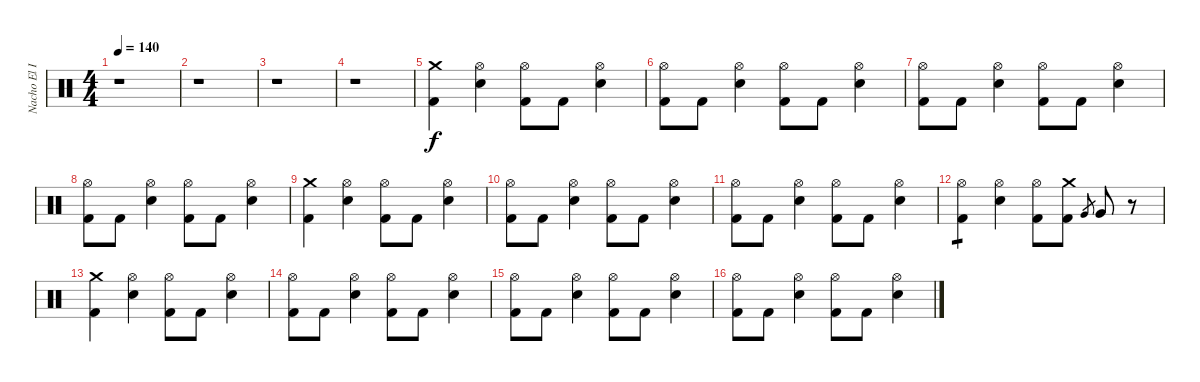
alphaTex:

\track ("Nacho El Implacable Gonzalez" "Nacho El I") {instrument percussion}
\staff {score}
\articulation defaults
\ts (4 4)
\tempo 140
\clef neutral
\ks c
r.1{dy f} |
r.1 |
r.1 |
r.1 |
("Crash medium (hit)" "Kick (hit) 2").4 ("Hi-Hat (open)" "Electric Snare (hit)").4 ("Hi-Hat (open)" "Kick (hit) 2").8 "Kick (hit) 2".8 ("Hi-Hat (open)" "Electric Snare (hit)").4 |
("Hi-Hat (open)" "Kick (hit) 2").8 "Kick (hit) 2".8 ("Hi-Hat (open)" "Electric Snare (hit)").4 ("Hi-Hat (open)" "Kick (hit) 2").8 "Kick (hit) 2".8 ("Hi-Hat (open)" "Electric Snare (hit)").4 |
("Hi-Hat (open)" "Kick (hit) 2").8 "Kick (hit) 2".8 ("Hi-Hat (open)" "Electric Snare (hit)").4 ("Hi-Hat (open)" "Kick (hit) 2").8 "Kick (hit) 2".8 ("Hi-Hat (open)" "Electric Snare (hit)").4 |
("Hi-Hat (open)" "Kick (hit) 2").8 "Kick (hit) 2".8 ("Hi-Hat (open)" "Electric Snare (hit)").4 ("Hi-Hat (open)" "Kick (hit) 2").8 "Kick (hit) 2".8 ("Hi-Hat (open)" "Electric Snare (hit)").4 |
("Crash medium (hit)" "Kick (hit) 2").4 ("Hi-Hat (open)" "Electric Snare (hit)").4 ("Hi-Hat (open)" "Kick (hit) 2").8 "Kick (hit) 2".8 ("Hi-Hat (open)" "Electric Snare (hit)").4 |
("Hi-Hat (open)" "Kick (hit) 2").8 "Kick (hit) 2".8 ("Hi-Hat (open)" "Electric Snare (hit)").4 ("Hi-Hat (open)" "Kick (hit) 2").8 "Kick (hit) 2".8 ("Hi-Hat (open)" "Electric Snare (hit)").4 |
("Hi-Hat (open)" "Kick (hit) 2").8 "Kick (hit) 2".8 ("Hi-Hat (open)" "Electric Snare (hit)").4 ("Hi-Hat (open)" "Kick (hit) 2").8 "Kick (hit) 2".8 ("Hi-Hat (open)" "Electric Snare (hit)").4 |
("Hi-Hat (open)" "Kick (hit) 2").4{tp 1} ("Hi-Hat (open)" "Electric Snare (hit)").4 ("Hi-Hat (open)" "Kick (hit) 2").8 ("Crash medium (hit)" "Kick (hit) 2").8 "Very Low Tom (hit)".8{gr} "Very Low Tom (hit)".8 r.8 |
("Crash medium (hit)" "Kick (hit) 2").4 ("Hi-Hat (open)" "Electric Snare (hit)").4 ("Hi-Hat (open)" "Kick (hit) 2").8 "Kick (hit) 2".8 ("Hi-Hat (open)" "Electric Snare (hit)").4 |
("Hi-Hat (open)" "Kick (hit) 2").8 "Kick (hit) 2".8 ("Hi-Hat (open)" "Electric Snare (hit)").4 ("Hi-Hat (open)" "Kick (hit) 2").8 "Kick (hit) 2".8 ("Hi-Hat (open)" "Electric Snare (hit)").4 |
("Hi-Hat (open)" "Kick (hit) 2").8 "Kick (hit) 2".8 ("Hi-Hat (open)" "Electric Snare (hit)").4 ("Hi-Hat (open)" "Kick (hit) 2").8 "Kick (hit) 2".8 ("Hi-Hat (open)" "Electric Snare (hit)").4 |
("Hi-Hat (open)" "Kick (hit) 2").8 "Kick (hit) 2".8 ("Hi-Hat (open)" "Electric Snare (hit)").4 ("Hi-Hat (open)" "Kick (hit) 2").8 "Kick (hit) 2".8 ("Hi-Hat (open)" "Electric Snare (hit)").4
